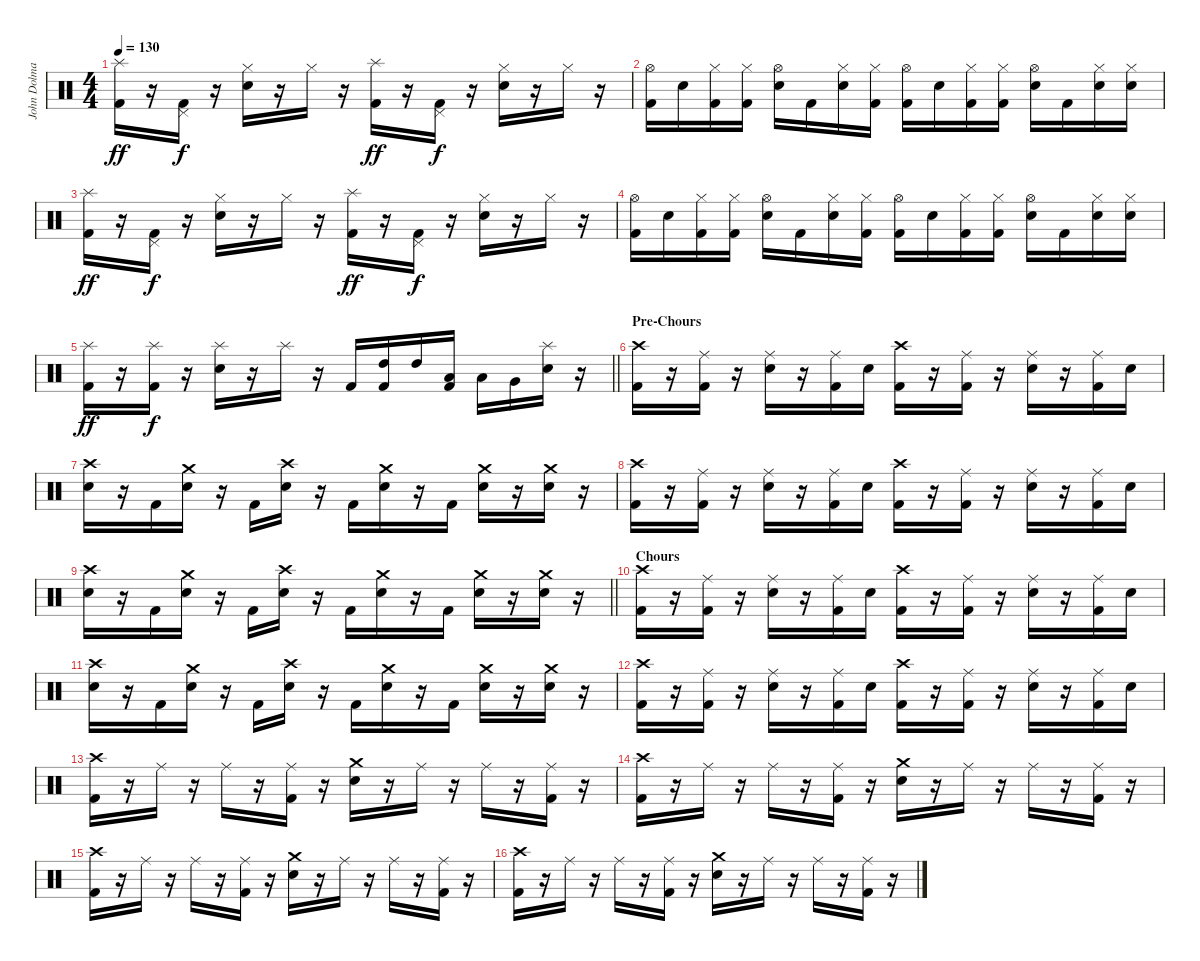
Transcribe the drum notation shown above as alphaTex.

\track ("John Dolmayan" "John Dolma") {instrument percussion}
\staff {score}
\articulation defaults
\ts (4 4)
\tempo 130
\clef neutral
\ks c
("Splash (hit)" "Kick (hit) 2").16{dy ff} r.16 ("Pedal Hi-Hat (hit)" "Kick (hit) 2").16{dy f} r.16 ("Hi-Hat (closed)" "Electric Snare (hit)").16 r.16 "Hi-Hat (closed)".16 r.16 ("Splash (hit)" "Kick (hit) 2").16{dy ff} r.16 ("Pedal Hi-Hat (hit)" "Kick (hit) 2").16{dy f} r.16 ("Hi-Hat (closed)" "Electric Snare (hit)").16 r.16 "Hi-Hat (closed)".16 r.16 |
("Hi-Hat (open)" "Kick (hit) 2").16 "Electric Snare (hit)".16 ("Hi-Hat (closed)" "Kick (hit) 2").16 ("Hi-Hat (closed)" "Kick (hit) 2").16 ("Hi-Hat (open)" "Electric Snare (hit)").16 "Kick (hit) 2".16 ("Hi-Hat (closed)" "Electric Snare (hit)").16 ("Hi-Hat (closed)" "Kick (hit) 2").16 ("Hi-Hat (open)" "Kick (hit) 2").16 "Electric Snare (hit)".16 ("Hi-Hat (closed)" "Kick (hit) 2").16 ("Hi-Hat (closed)" "Kick (hit) 2").16 ("Hi-Hat (open)" "Electric Snare (hit)").16 "Kick (hit) 2".16 ("Hi-Hat (closed)" "Electric Snare (hit)").16 ("Hi-Hat (closed)" "Electric Snare (hit)").16 |
("Splash (hit)" "Kick (hit) 2").16{dy ff} r.16 ("Pedal Hi-Hat (hit)" "Kick (hit) 2").16{dy f} r.16 ("Hi-Hat (closed)" "Electric Snare (hit)").16 r.16 "Hi-Hat (closed)".16 r.16 ("Splash (hit)" "Kick (hit) 2").16{dy ff} r.16 ("Pedal Hi-Hat (hit)" "Kick (hit) 2").16{dy f} r.16 ("Hi-Hat (closed)" "Electric Snare (hit)").16 r.16 "Hi-Hat (closed)".16 r.16 |
("Hi-Hat (open)" "Kick (hit) 2").16 "Electric Snare (hit)".16 ("Hi-Hat (closed)" "Kick (hit) 2").16 ("Hi-Hat (closed)" "Kick (hit) 2").16 ("Hi-Hat (open)" "Electric Snare (hit)").16 "Kick (hit) 2".16 ("Hi-Hat (closed)" "Electric Snare (hit)").16 ("Hi-Hat (closed)" "Kick (hit) 2").16 ("Hi-Hat (open)" "Kick (hit) 2").16 "Electric Snare (hit)".16 ("Hi-Hat (closed)" "Kick (hit) 2").16 ("Hi-Hat (closed)" "Kick (hit) 2").16 ("Hi-Hat (open)" "Electric Snare (hit)").16 "Kick (hit) 2".16 ("Hi-Hat (closed)" "Electric Snare (hit)").16 ("Hi-Hat (closed)" "Electric Snare (hit)").16 |
\barLineRight lightlight
("Splash (hit)" "Kick (hit) 2").16{dy ff} r.16 ("Splash (hit)" "Kick (hit) 2").16{dy f} r.16 ("Splash (hit)" "Electric Snare (hit)").16 r.16 "Splash (hit)".16 r.16 "Kick (hit) 2".16 ("High Tom (hit)" "Kick (hit) 2").16 "High Tom (hit)".16 ("Low Tom (hit)" "Kick (hit) 2").16 "Low Tom (hit)".16 "Very Low Tom (hit)".16 ("Splash (hit)" "Electric Snare (hit)").16 r.16 |
\section ("" "Pre-Chours")
("Crash high (hit)" "Kick (hit) 2").16 r.16 ("Ride (middle)" "Kick (hit) 2").16 r.16 ("Ride (middle)" "Electric Snare (hit)").16 r.16 ("Ride (middle)" "Kick (hit) 2").16 "Electric Snare (hit)".16 ("Crash high (hit)" "Kick (hit) 2").16 r.16 ("Ride (middle)" "Kick (hit) 2").16 r.16 ("Ride (middle)" "Electric Snare (hit)").16 r.16 ("Ride (middle)" "Kick (hit) 2").16 "Electric Snare (hit)".16 |
("Crash high (hit)" "Electric Snare (hit)").16 r.16 "Kick (hit) 2".16 ("Crash medium (hit)" "Electric Snare (hit)").16 r.16 "Kick (hit) 2".16 ("Crash high (hit)" "Electric Snare (hit)").16 r.16 "Kick (hit) 2".16 ("Crash medium (hit)" "Electric Snare (hit)").16 r.16 "Kick (hit) 2".16 ("Crash medium (hit)" "Electric Snare (hit)").16 r.16 ("Crash medium (hit)" "Electric Snare (hit)").16 r.16 |
("Crash high (hit)" "Kick (hit) 2").16 r.16 ("Ride (middle)" "Kick (hit) 2").16 r.16 ("Ride (middle)" "Electric Snare (hit)").16 r.16 ("Ride (middle)" "Kick (hit) 2").16 "Electric Snare (hit)".16 ("Crash high (hit)" "Kick (hit) 2").16 r.16 ("Ride (middle)" "Kick (hit) 2").16 r.16 ("Ride (middle)" "Electric Snare (hit)").16 r.16 ("Ride (middle)" "Kick (hit) 2").16 "Electric Snare (hit)".16 |
\barLineRight lightlight
("Crash high (hit)" "Electric Snare (hit)").16 r.16 "Kick (hit) 2".16 ("Crash medium (hit)" "Electric Snare (hit)").16 r.16 "Kick (hit) 2".16 ("Crash high (hit)" "Electric Snare (hit)").16 r.16 "Kick (hit) 2".16 ("Crash medium (hit)" "Electric Snare (hit)").16 r.16 "Kick (hit) 2".16 ("Crash medium (hit)" "Electric Snare (hit)").16 r.16 ("Crash medium (hit)" "Electric Snare (hit)").16 r.16 |
\section ("" "Chours")
("Crash high (hit)" "Kick (hit) 2").16 r.16 ("Ride (middle)" "Kick (hit) 2").16 r.16 ("Ride (middle)" "Electric Snare (hit)").16 r.16 ("Ride (middle)" "Kick (hit) 2").16 "Electric Snare (hit)".16 ("Crash high (hit)" "Kick (hit) 2").16 r.16 ("Ride (middle)" "Kick (hit) 2").16 r.16 ("Ride (middle)" "Electric Snare (hit)").16 r.16 ("Ride (middle)" "Kick (hit) 2").16 "Electric Snare (hit)".16 |
("Crash high (hit)" "Electric Snare (hit)").16 r.16 "Kick (hit) 2".16 ("Crash medium (hit)" "Electric Snare (hit)").16 r.16 "Kick (hit) 2".16 ("Crash high (hit)" "Electric Snare (hit)").16 r.16 "Kick (hit) 2".16 ("Crash medium (hit)" "Electric Snare (hit)").16 r.16 "Kick (hit) 2".16 ("Crash medium (hit)" "Electric Snare (hit)").16 r.16 ("Crash medium (hit)" "Electric Snare (hit)").16 r.16 |
("Crash high (hit)" "Kick (hit) 2").16 r.16 ("Ride (middle)" "Kick (hit) 2").16 r.16 ("Ride (middle)" "Electric Snare (hit)").16 r.16 ("Ride (middle)" "Kick (hit) 2").16 "Electric Snare (hit)".16 ("Crash high (hit)" "Kick (hit) 2").16 r.16 ("Ride (middle)" "Kick (hit) 2").16 r.16 ("Ride (middle)" "Electric Snare (hit)").16 r.16 ("Ride (middle)" "Kick (hit) 2").16 "Electric Snare (hit)".16 |
("Crash high (hit)" "Kick (hit) 2").16 r.16 "Ride (middle)".16 r.16 "Ride (middle)".16 r.16 ("Ride (middle)" "Kick (hit) 2").16 r.16 ("Crash medium (hit)" "Electric Snare (hit)").16 r.16 "Ride (middle)".16 r.16 "Ride (middle)".16 r.16 ("Ride (middle)" "Kick (hit) 2").16 r.16 |
("Crash high (hit)" "Kick (hit) 2").16 r.16 "Ride (middle)".16 r.16 "Ride (middle)".16 r.16 ("Ride (middle)" "Kick (hit) 2").16 r.16 ("Crash medium (hit)" "Electric Snare (hit)").16 r.16 "Ride (middle)".16 r.16 "Ride (middle)".16 r.16 ("Ride (middle)" "Kick (hit) 2").16 r.16 |
("Crash high (hit)" "Kick (hit) 2").16 r.16 "Ride (middle)".16 r.16 "Ride (middle)".16 r.16 ("Ride (middle)" "Kick (hit) 2").16 r.16 ("Crash medium (hit)" "Electric Snare (hit)").16 r.16 "Ride (middle)".16 r.16 "Ride (middle)".16 r.16 ("Ride (middle)" "Kick (hit) 2").16 r.16 |
("Crash high (hit)" "Kick (hit) 2").16 r.16 "Ride (middle)".16 r.16 "Ride (middle)".16 r.16 ("Ride (middle)" "Kick (hit) 2").16 r.16 ("Crash medium (hit)" "Electric Snare (hit)").16 r.16 "Ride (middle)".16 r.16 "Ride (middle)".16 r.16 ("Ride (middle)" "Kick (hit) 2").16 r.16
